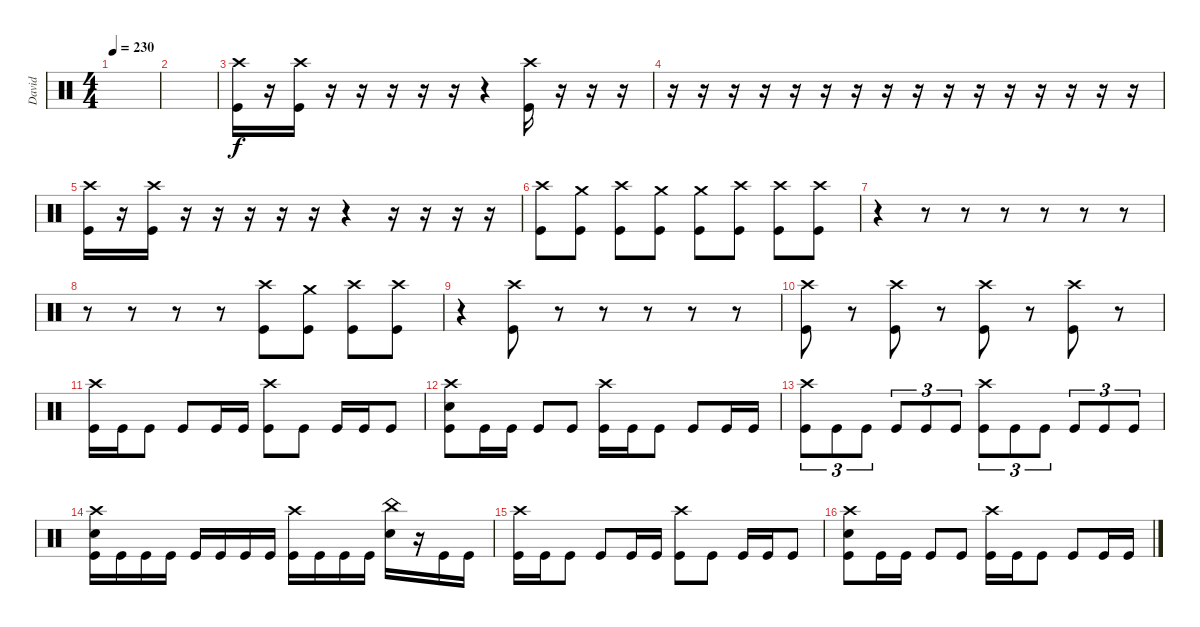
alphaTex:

\track ("David" "David") {instrument percussion}
\staff {score}
\articulation defaults
\ts (4 4)
\tempo 230
\clef neutral
\ks c
|
|
("Crash high (hit)" "Kick (hit)").16 r.16 ("Crash high (hit)" "Kick (hit)").16 r.16 r.16 r.16 r.16 r.16 r.4 ("Crash high (hit)" "Kick (hit)").16 r.16 r.16 r.16 |
r.16 r.16 r.16 r.16 r.16 r.16 r.16 r.16 r.16 r.16 r.16 r.16 r.16 r.16 r.16 r.16 |
("Crash high (hit)" "Kick (hit)").16 r.16 ("Crash high (hit)" "Kick (hit)").16 r.16 r.16 r.16 r.16 r.16 r.4 r.16 r.16 r.16 r.16 |
("Crash high (hit)" "Kick (hit)").8 ("Crash medium (hit)" "Kick (hit)").8 ("Crash high (hit)" "Kick (hit)").8 ("Crash medium (hit)" "Kick (hit)").8 ("Crash medium (hit)" "Kick (hit)").8 ("Crash high (hit)" "Kick (hit)").8 ("Crash high (hit)" "Kick (hit)").8 ("Crash high (hit)" "Kick (hit)").8 |
r.4 r.8 r.8 r.8 r.8 r.8 r.8 |
r.8 r.8 r.8 r.8 ("Crash high (hit)" "Kick (hit)").8 ("Crash medium (hit)" "Kick (hit)").8 ("Crash high (hit)" "Kick (hit)").8 ("Crash high (hit)" "Kick (hit)").8 |
r.4 ("Crash high (hit)" "Kick (hit)").8 r.8 r.8 r.8 r.8 r.8 |
("Crash high (hit)" "Kick (hit)").8 r.8 ("Crash high (hit)" "Kick (hit)").8 r.8 ("Crash high (hit)" "Kick (hit)").8 r.8 ("Crash high (hit)" "Kick (hit)").8 r.8 |
("Crash high (hit)" "Kick (hit)").16 "Kick (hit)".16 "Kick (hit)".8 "Kick (hit)".8 "Kick (hit)".16 "Kick (hit)".16 ("Crash high (hit)" "Kick (hit)").8 "Kick (hit)".8 "Kick (hit)".16 "Kick (hit)".16 "Kick (hit)".8 |
("Crash high (hit)" "Electric Snare (hit)" "Kick (hit)").8 "Kick (hit)".16 "Kick (hit)".16 "Kick (hit)".8 "Kick (hit)".8 ("Crash high (hit)" "Kick (hit)").16 "Kick (hit)".16 "Kick (hit)".8 "Kick (hit)".8 "Kick (hit)".16 "Kick (hit)".16 |
("Crash high (hit)" "Kick (hit)").8{tu (3 2)} "Kick (hit)".8{tu (3 2)} "Kick (hit)".8{tu (3 2)} "Kick (hit)".8{tu (3 2)} "Kick (hit)".8{tu (3 2)} "Kick (hit)".8{tu (3 2)} ("Crash high (hit)" "Kick (hit)").8{tu (3 2)} "Kick (hit)".8{tu (3 2)} "Kick (hit)".8{tu (3 2)} "Kick (hit)".8{tu (3 2)} "Kick (hit)".8{tu (3 2)} "Kick (hit)".8{tu (3 2)} |
("Crash high (hit)" "Electric Snare (hit)" "Kick (hit)").16 "Kick (hit)".16 "Kick (hit)".16 "Kick (hit)".16 "Kick (hit)".16 "Kick (hit)".16 "Kick (hit)".16 "Kick (hit)".16 ("Crash high (hit)" "Kick (hit)").16 "Kick (hit)".16 "Kick (hit)".16 "Kick (hit)".16 ("China (hit)" "Electric Snare (hit)").16 r.16 "Kick (hit)".16 "Kick (hit)".16 |
("Crash high (hit)" "Kick (hit)").16 "Kick (hit)".16 "Kick (hit)".8 "Kick (hit)".8 "Kick (hit)".16 "Kick (hit)".16 ("Crash high (hit)" "Kick (hit)").8 "Kick (hit)".8 "Kick (hit)".16 "Kick (hit)".16 "Kick (hit)".8 |
("Crash high (hit)" "Electric Snare (hit)" "Kick (hit)").8 "Kick (hit)".16 "Kick (hit)".16 "Kick (hit)".8 "Kick (hit)".8 ("Crash high (hit)" "Kick (hit)").16 "Kick (hit)".16 "Kick (hit)".8 "Kick (hit)".8 "Kick (hit)".16 "Kick (hit)".16
